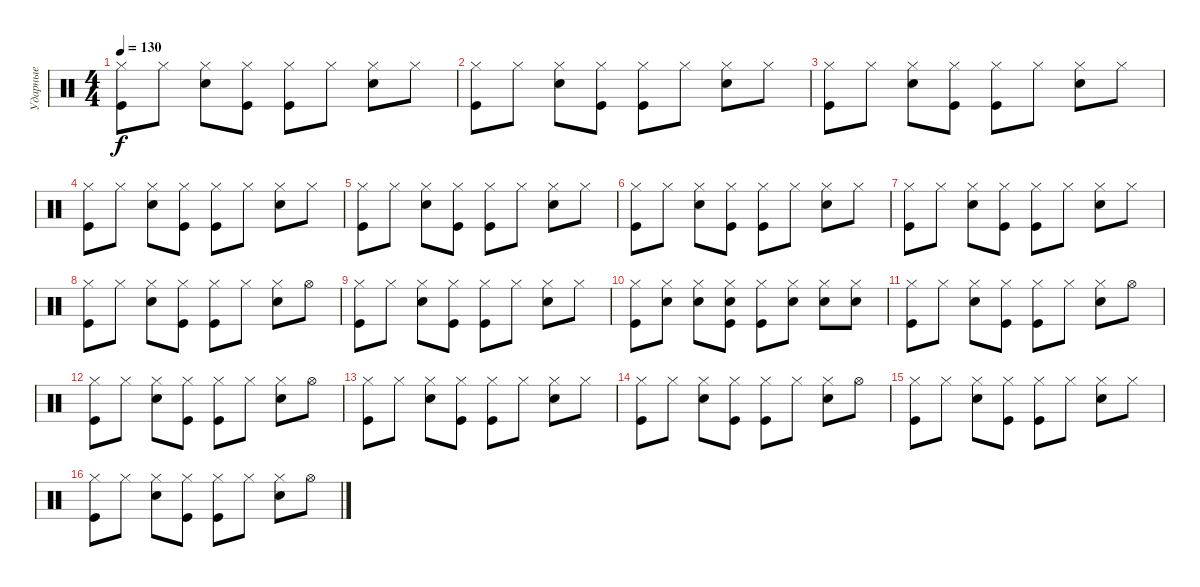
\track ("Ударные" "Ударные") {instrument percussion}
\staff {score}
\articulation defaults
\ts (4 4)
\tempo 130
\clef neutral
\ks c
("Hi-Hat (closed)" "Kick (hit)").8{dy f} "Hi-Hat (closed)".8 ("Hi-Hat (closed)" "Snare (hit) 2").8 ("Hi-Hat (closed)" "Kick (hit)").8 ("Hi-Hat (closed)" "Kick (hit)").8 "Hi-Hat (closed)".8 ("Hi-Hat (closed)" "Snare (hit) 2").8 "Hi-Hat (closed)".8 |
("Hi-Hat (closed)" "Kick (hit)").8 "Hi-Hat (closed)".8 ("Hi-Hat (closed)" "Snare (hit) 2").8 ("Hi-Hat (closed)" "Kick (hit)").8 ("Hi-Hat (closed)" "Kick (hit)").8 "Hi-Hat (closed)".8 ("Hi-Hat (closed)" "Snare (hit) 2").8 "Hi-Hat (closed)".8 |
("Hi-Hat (closed)" "Kick (hit)").8 "Hi-Hat (closed)".8 ("Hi-Hat (closed)" "Snare (hit) 2").8 ("Hi-Hat (closed)" "Kick (hit)").8 ("Hi-Hat (closed)" "Kick (hit)").8 "Hi-Hat (closed)".8 ("Hi-Hat (closed)" "Snare (hit) 2").8 "Hi-Hat (closed)".8 |
("Hi-Hat (closed)" "Kick (hit)").8 "Hi-Hat (closed)".8 ("Hi-Hat (closed)" "Snare (hit) 2").8 ("Hi-Hat (closed)" "Kick (hit)").8 ("Hi-Hat (closed)" "Kick (hit)").8 "Hi-Hat (closed)".8 ("Hi-Hat (closed)" "Snare (hit) 2").8 "Hi-Hat (closed)".8 |
("Hi-Hat (closed)" "Kick (hit)").8 "Hi-Hat (closed)".8 ("Hi-Hat (closed)" "Snare (hit) 2").8 ("Hi-Hat (closed)" "Kick (hit)").8 ("Hi-Hat (closed)" "Kick (hit)").8 "Hi-Hat (closed)".8 ("Hi-Hat (closed)" "Snare (hit) 2").8 "Hi-Hat (closed)".8 |
("Hi-Hat (closed)" "Kick (hit)").8 "Hi-Hat (closed)".8 ("Hi-Hat (closed)" "Snare (hit) 2").8 ("Hi-Hat (closed)" "Kick (hit)").8 ("Hi-Hat (closed)" "Kick (hit)").8 "Hi-Hat (closed)".8 ("Hi-Hat (closed)" "Snare (hit) 2").8 "Hi-Hat (closed)".8 |
("Hi-Hat (closed)" "Kick (hit)").8 "Hi-Hat (closed)".8 ("Hi-Hat (closed)" "Snare (hit) 2").8 ("Hi-Hat (closed)" "Kick (hit)").8 ("Hi-Hat (closed)" "Kick (hit)").8 "Hi-Hat (closed)".8 ("Hi-Hat (closed)" "Snare (hit) 2").8 "Hi-Hat (closed)".8 |
("Hi-Hat (closed)" "Kick (hit)").8 "Hi-Hat (closed)".8 ("Hi-Hat (closed)" "Snare (hit) 2").8 ("Hi-Hat (closed)" "Kick (hit)").8 ("Hi-Hat (closed)" "Kick (hit)").8 "Hi-Hat (closed)".8 ("Hi-Hat (closed)" "Snare (hit) 2").8 "Hi-Hat (open)".8 |
("Hi-Hat (closed)" "Kick (hit)").8 "Hi-Hat (closed)".8 ("Hi-Hat (closed)" "Snare (hit) 2").8 ("Hi-Hat (closed)" "Kick (hit)").8 ("Hi-Hat (closed)" "Kick (hit)").8 "Hi-Hat (closed)".8 ("Hi-Hat (closed)" "Snare (hit) 2").8 "Hi-Hat (closed)".8 |
("Hi-Hat (closed)" "Kick (hit)").8 ("Hi-Hat (closed)" "Snare (hit) 2").8 ("Hi-Hat (closed)" "Snare (hit) 2").8 ("Hi-Hat (closed)" "Kick (hit)" "Snare (hit) 2").8 ("Hi-Hat (closed)" "Kick (hit)").8 ("Hi-Hat (closed)" "Snare (hit) 2").8 ("Hi-Hat (closed)" "Snare (hit) 2").8 ("Hi-Hat (closed)" "Snare (hit) 2").8 |
("Hi-Hat (closed)" "Kick (hit)").8 "Hi-Hat (closed)".8 ("Hi-Hat (closed)" "Snare (hit) 2").8 ("Hi-Hat (closed)" "Kick (hit)").8 ("Hi-Hat (closed)" "Kick (hit)").8 "Hi-Hat (closed)".8 ("Hi-Hat (closed)" "Snare (hit) 2").8 "Hi-Hat (open)".8 |
("Hi-Hat (closed)" "Kick (hit)").8 "Hi-Hat (closed)".8 ("Hi-Hat (closed)" "Snare (hit) 2").8 ("Hi-Hat (closed)" "Kick (hit)").8 ("Hi-Hat (closed)" "Kick (hit)").8 "Hi-Hat (closed)".8 ("Hi-Hat (closed)" "Snare (hit) 2").8 "Hi-Hat (open)".8 |
("Hi-Hat (closed)" "Kick (hit)").8 "Hi-Hat (closed)".8 ("Hi-Hat (closed)" "Snare (hit) 2").8 ("Hi-Hat (closed)" "Kick (hit)").8 ("Hi-Hat (closed)" "Kick (hit)").8 "Hi-Hat (closed)".8 ("Hi-Hat (closed)" "Snare (hit) 2").8 "Hi-Hat (closed)".8 |
("Hi-Hat (closed)" "Kick (hit)").8 "Hi-Hat (closed)".8 ("Hi-Hat (closed)" "Snare (hit) 2").8 ("Hi-Hat (closed)" "Kick (hit)").8 ("Hi-Hat (closed)" "Kick (hit)").8 "Hi-Hat (closed)".8 ("Hi-Hat (closed)" "Snare (hit) 2").8 "Hi-Hat (open)".8 |
("Hi-Hat (closed)" "Kick (hit)").8 "Hi-Hat (closed)".8 ("Hi-Hat (closed)" "Snare (hit) 2").8 ("Hi-Hat (closed)" "Kick (hit)").8 ("Hi-Hat (closed)" "Kick (hit)").8 "Hi-Hat (closed)".8 ("Hi-Hat (closed)" "Snare (hit) 2").8 "Hi-Hat (closed)".8 |
("Hi-Hat (closed)" "Kick (hit)").8 "Hi-Hat (closed)".8 ("Hi-Hat (closed)" "Snare (hit) 2").8 ("Hi-Hat (closed)" "Kick (hit)").8 ("Hi-Hat (closed)" "Kick (hit)").8 "Hi-Hat (closed)".8 ("Hi-Hat (closed)" "Snare (hit) 2").8 "Hi-Hat (open)".8
